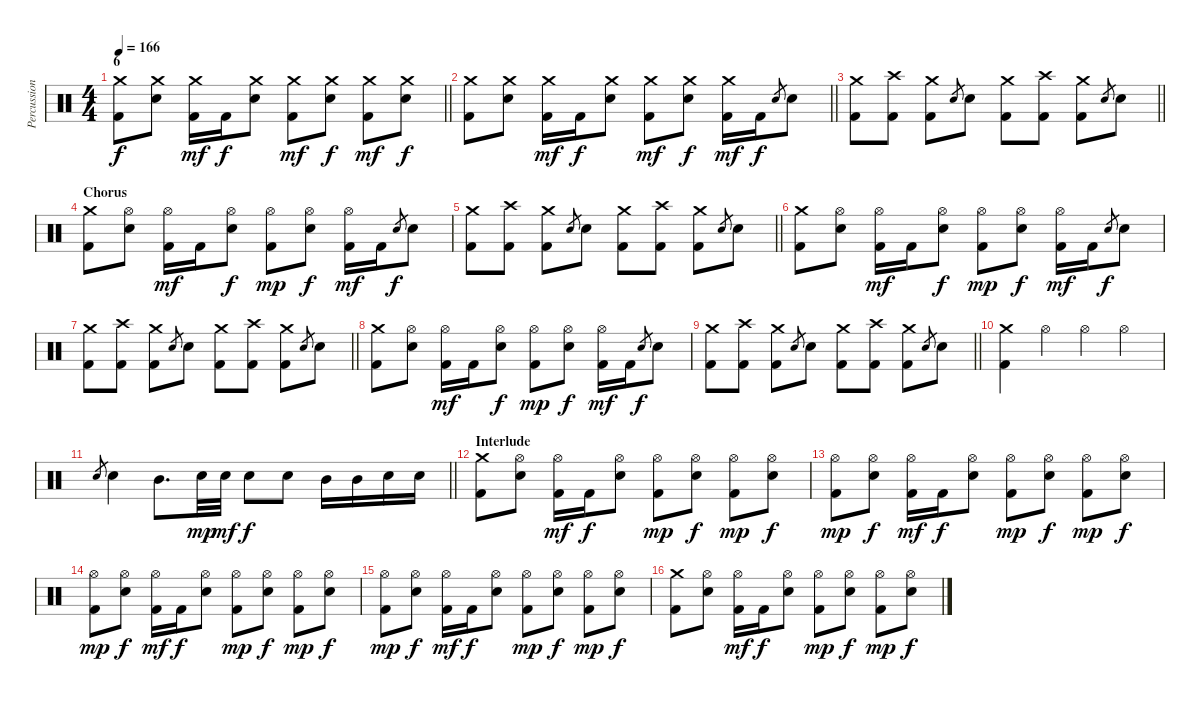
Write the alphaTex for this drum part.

\track ("Percussion" "Percussion") {instrument percussion}
\staff {score}
\articulation defaults
\ts (4 4)
\section ("" "6")
\tempo 166
\clef neutral
\barLineRight lightlight
\ks c
("Crash medium (hit)" "Kick (hit) 2").8{dy f} ("Crash medium (hit)" "Electric Snare (hit)").8 ("Crash medium (hit)" "Kick (hit) 2").16{dy mf} "Kick (hit) 2".16{dy f} ("Crash medium (hit)" "Electric Snare (hit)").8 ("Crash medium (hit)" "Kick (hit) 2").8{dy mf} ("Crash medium (hit)" "Electric Snare (hit)").8{dy f} ("Crash medium (hit)" "Kick (hit) 2").8{dy mf} ("Crash medium (hit)" "Electric Snare (hit)").8{dy f} |
\barLineRight lightlight
("Crash medium (hit)" "Kick (hit) 2").8 ("Crash medium (hit)" "Electric Snare (hit)").8 ("Crash medium (hit)" "Kick (hit) 2").16{dy mf} "Kick (hit) 2".16{dy f} ("Crash medium (hit)" "Electric Snare (hit)").8 ("Crash medium (hit)" "Kick (hit) 2").8{dy mf} ("Crash medium (hit)" "Electric Snare (hit)").8{dy f} ("Crash medium (hit)" "Kick (hit) 2").16{dy mf} "Kick (hit) 2".16{dy f} "Electric Snare (hit)".8{gr} "Electric Snare (hit)".8 |
\barLineRight lightlight
("Crash medium (hit)" "Kick (hit) 2").8 ("Crash high (hit)" "Kick (hit) 2").8 ("Crash medium (hit)" "Kick (hit) 2").8 "Electric Snare (hit)".8{gr} "Electric Snare (hit)".8 ("Crash medium (hit)" "Kick (hit) 2").8 ("Crash high (hit)" "Kick (hit) 2").8 ("Crash medium (hit)" "Kick (hit) 2").8 "Electric Snare (hit)".8{gr} "Electric Snare (hit)".8 |
\section ("" "Chorus")
("Crash medium (hit)" "Kick (hit) 2").8 ("Hi-Hat (open)" "Electric Snare (hit)").8 ("Hi-Hat (open)" "Kick (hit) 2").16{dy mf} "Kick (hit) 2".16 ("Hi-Hat (open)" "Electric Snare (hit)").8{dy f} ("Hi-Hat (open)" "Kick (hit) 2").8{dy mp} ("Hi-Hat (open)" "Electric Snare (hit)").8{dy f} ("Hi-Hat (open)" "Kick (hit) 2").16{dy mf} "Kick (hit) 2".16 "Electric Snare (hit)".8{gr dy f} "Electric Snare (hit)".8 |
\barLineRight lightlight
("Crash medium (hit)" "Kick (hit) 2").8 ("Crash high (hit)" "Kick (hit) 2").8 ("Crash medium (hit)" "Kick (hit) 2").8 "Electric Snare (hit)".8{gr} "Electric Snare (hit)".8 ("Crash medium (hit)" "Kick (hit) 2").8 ("Crash high (hit)" "Kick (hit) 2").8 ("Crash medium (hit)" "Kick (hit) 2").8 "Electric Snare (hit)".8{gr} "Electric Snare (hit)".8 |
("Crash medium (hit)" "Kick (hit) 2").8 ("Hi-Hat (open)" "Electric Snare (hit)").8 ("Hi-Hat (open)" "Kick (hit) 2").16{dy mf} "Kick (hit) 2".16 ("Hi-Hat (open)" "Electric Snare (hit)").8{dy f} ("Hi-Hat (open)" "Kick (hit) 2").8{dy mp} ("Hi-Hat (open)" "Electric Snare (hit)").8{dy f} ("Hi-Hat (open)" "Kick (hit) 2").16{dy mf} "Kick (hit) 2".16 "Electric Snare (hit)".8{gr dy f} "Electric Snare (hit)".8 |
\barLineRight lightlight
("Crash medium (hit)" "Kick (hit) 2").8 ("Crash high (hit)" "Kick (hit) 2").8 ("Crash medium (hit)" "Kick (hit) 2").8 "Electric Snare (hit)".8{gr} "Electric Snare (hit)".8 ("Crash medium (hit)" "Kick (hit) 2").8 ("Crash high (hit)" "Kick (hit) 2").8 ("Crash medium (hit)" "Kick (hit) 2").8 "Electric Snare (hit)".8{gr} "Electric Snare (hit)".8 |
("Crash medium (hit)" "Kick (hit) 2").8 ("Hi-Hat (open)" "Electric Snare (hit)").8 ("Hi-Hat (open)" "Kick (hit) 2").16{dy mf} "Kick (hit) 2".16 ("Hi-Hat (open)" "Electric Snare (hit)").8{dy f} ("Hi-Hat (open)" "Kick (hit) 2").8{dy mp} ("Hi-Hat (open)" "Electric Snare (hit)").8{dy f} ("Hi-Hat (open)" "Kick (hit) 2").16{dy mf} "Kick (hit) 2".16 "Electric Snare (hit)".8{gr dy f} "Electric Snare (hit)".8 |
\barLineRight lightlight
("Crash medium (hit)" "Kick (hit) 2").8 ("Crash high (hit)" "Kick (hit) 2").8 ("Crash medium (hit)" "Kick (hit) 2").8 "Electric Snare (hit)".8{gr} "Electric Snare (hit)".8 ("Crash medium (hit)" "Kick (hit) 2").8 ("Crash high (hit)" "Kick (hit) 2").8 ("Crash medium (hit)" "Kick (hit) 2").8 "Electric Snare (hit)".8{gr} "Electric Snare (hit)".8 |
("Crash medium (hit)" "Kick (hit) 2").4 "Hi-Hat (open)".4 "Hi-Hat (open)".4 "Hi-Hat (open)".4 |
\barLineRight lightlight "Electric Snare (hit)".8{gr} "Electric Snare (hit)".4 "Mid Tom (hit)".8{d} "Electric Snare (hit)".32{dy mp} "Electric Snare (hit)".32{dy mf} "Electric Snare (hit)".8{dy f} "Electric Snare (hit)".8 "Mid Tom (hit)".16 "Mid Tom (hit)".16 "Electric Snare (hit)".16 "Electric Snare (hit)".16
|
\section ("" "Interlude")
("Crash medium (hit)" "Kick (hit) 2").8 ("Hi-Hat (open)" "Electric Snare (hit)").8 ("Hi-Hat (open)" "Kick (hit) 2").16{dy mf} "Kick (hit) 2".16{dy f} ("Hi-Hat (open)" "Electric Snare (hit)").8 ("Hi-Hat (open)" "Kick (hit) 2").8{dy mp} ("Hi-Hat (open)" "Electric Snare (hit)").8{dy f} ("Hi-Hat (open)" "Kick (hit) 2").8{dy mp} ("Hi-Hat (open)" "Electric Snare (hit)").8{dy f} |
("Hi-Hat (open)" "Kick (hit) 2").8{dy mp} ("Hi-Hat (open)" "Electric Snare (hit)").8{dy f} ("Hi-Hat (open)" "Kick (hit) 2").16{dy mf} "Kick (hit) 2".16{dy f} ("Hi-Hat (open)" "Electric Snare (hit)").8 ("Hi-Hat (open)" "Kick (hit) 2").8{dy mp} ("Hi-Hat (open)" "Electric Snare (hit)").8{dy f} ("Hi-Hat (open)" "Kick (hit) 2").8{dy mp} ("Hi-Hat (open)" "Electric Snare (hit)").8{dy f} |
("Hi-Hat (open)" "Kick (hit) 2").8{dy mp} ("Hi-Hat (open)" "Electric Snare (hit)").8{dy f} ("Hi-Hat (open)" "Kick (hit) 2").16{dy mf} "Kick (hit) 2".16{dy f} ("Hi-Hat (open)" "Electric Snare (hit)").8 ("Hi-Hat (open)" "Kick (hit) 2").8{dy mp} ("Hi-Hat (open)" "Electric Snare (hit)").8{dy f} ("Hi-Hat (open)" "Kick (hit) 2").8{dy mp} ("Hi-Hat (open)" "Electric Snare (hit)").8{dy f} |
("Hi-Hat (open)" "Kick (hit) 2").8{dy mp} ("Hi-Hat (open)" "Electric Snare (hit)").8{dy f} ("Hi-Hat (open)" "Kick (hit) 2").16{dy mf} "Kick (hit) 2".16{dy f} ("Hi-Hat (open)" "Electric Snare (hit)").8 ("Hi-Hat (open)" "Kick (hit) 2").8{dy mp} ("Hi-Hat (open)" "Electric Snare (hit)").8{dy f} ("Hi-Hat (open)" "Kick (hit) 2").8{dy mp} ("Hi-Hat (open)" "Electric Snare (hit)").8{dy f} |
("Crash medium (hit)" "Kick (hit) 2").8 ("Hi-Hat (open)" "Electric Snare (hit)").8 ("Hi-Hat (open)" "Kick (hit) 2").16{dy mf} "Kick (hit) 2".16{dy f} ("Hi-Hat (open)" "Electric Snare (hit)").8 ("Hi-Hat (open)" "Kick (hit) 2").8{dy mp} ("Hi-Hat (open)" "Electric Snare (hit)").8{dy f} ("Hi-Hat (open)" "Kick (hit) 2").8{dy mp} ("Hi-Hat (open)" "Electric Snare (hit)").8{dy f}
